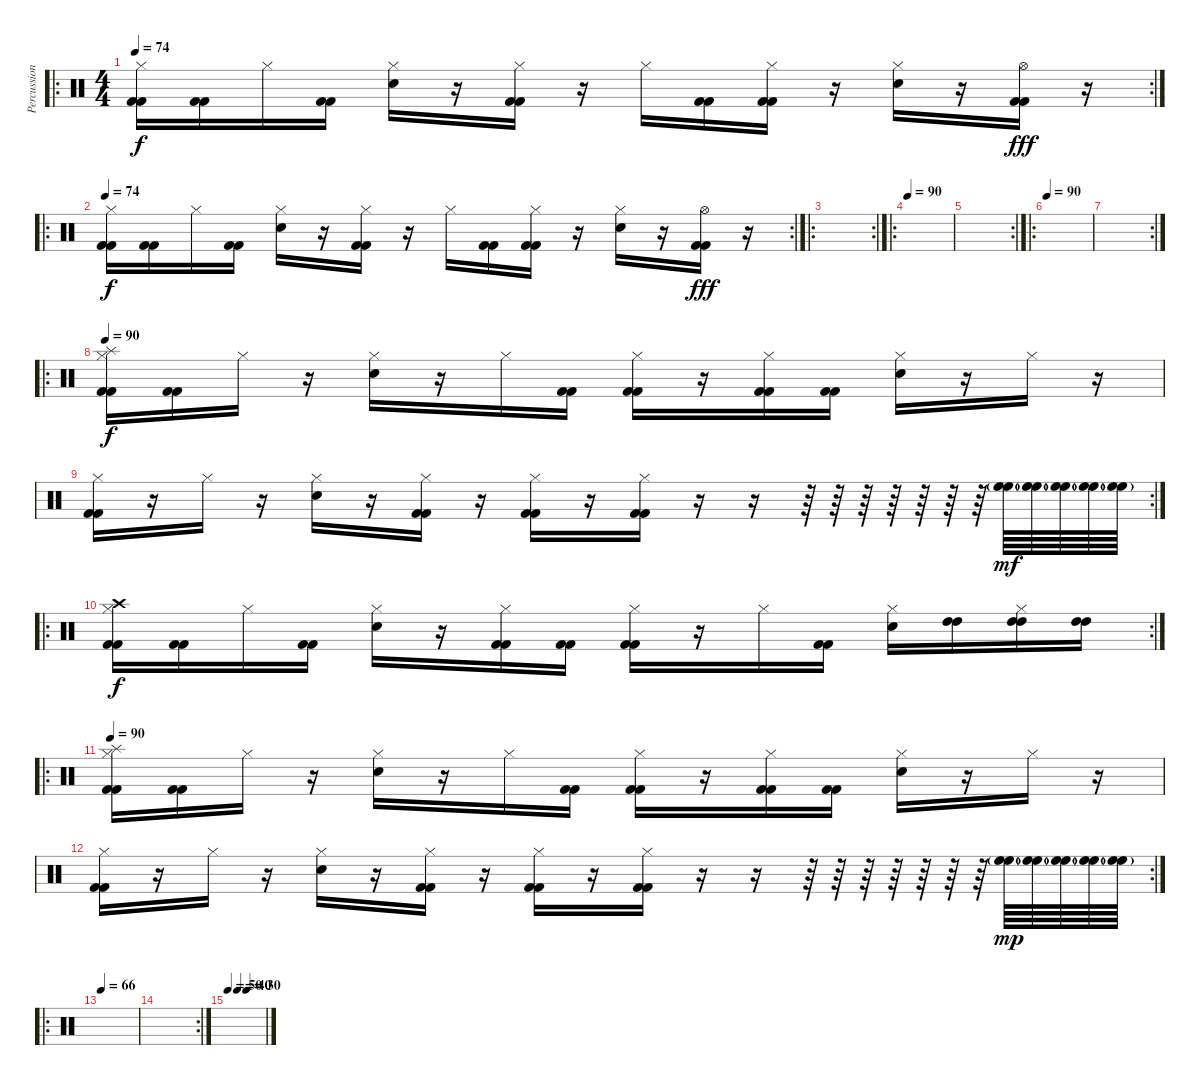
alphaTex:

\track ("Percussion" "Percussion") {instrument percussion}
\staff {score}
\articulation defaults
\ro
\rc 2
\ts (4 4)
\tempo 74
\clef neutral
\ks c
("Hi-Hat (closed)" "Kick (hit) 2" "Kick (hit) 2").16{dy f} ("Kick (hit) 2" "Kick (hit) 2").16 "Hi-Hat (closed)".16 ("Kick (hit) 2" "Kick (hit) 2").16 ("Hi-Hat (closed)" "Snare (hit) 2").16 r.16 ("Hi-Hat (closed)" "Kick (hit) 2" "Kick (hit) 2").16 r.16 "Hi-Hat (closed)".16 ("Kick (hit) 2" "Kick (hit) 2").16 ("Hi-Hat (closed)" "Kick (hit) 2" "Kick (hit) 2").16 r.16 ("Hi-Hat (closed)" "Snare (hit) 2").16 r.16 ("Hi-Hat (open)" "Kick (hit) 2" "Kick (hit) 2").16{dy fff} r.16 |
\ro
\rc 2
\tempo 74
("Hi-Hat (closed)" "Kick (hit) 2" "Kick (hit) 2").16{dy f} ("Kick (hit) 2" "Kick (hit) 2").16 "Hi-Hat (closed)".16 ("Kick (hit) 2" "Kick (hit) 2").16 ("Hi-Hat (closed)" "Snare (hit) 2").16 r.16 ("Hi-Hat (closed)" "Kick (hit) 2" "Kick (hit) 2").16 r.16 "Hi-Hat (closed)".16 ("Kick (hit) 2" "Kick (hit) 2").16 ("Hi-Hat (closed)" "Kick (hit) 2" "Kick (hit) 2").16 r.16 ("Hi-Hat (closed)" "Snare (hit) 2").16 r.16 ("Hi-Hat (open)" "Kick (hit) 2" "Kick (hit) 2").16{dy fff} r.16 |
\ro
\rc 2
|
\ro
\tempo 90
|
\rc 2
|
\ro
\tempo 90
|
\rc 2
|
\ro
\tempo 90
("Hi-Hat (closed)" "Splash (hit)" "Kick (hit) 2" "Kick (hit) 2").16{dy f} ("Kick (hit) 2" "Kick (hit) 2").16 "Hi-Hat (closed)".16 r.16 ("Hi-Hat (closed)" "Snare (hit) 2").16 r.16 "Hi-Hat (closed)".16 ("Kick (hit) 2" "Kick (hit) 2").16 ("Hi-Hat (closed)" "Kick (hit) 2" "Kick (hit) 2").16 r.16 ("Hi-Hat (closed)" "Kick (hit) 2" "Kick (hit) 2").16 ("Kick (hit) 2" "Kick (hit) 2").16 ("Hi-Hat (closed)" "Snare (hit) 2").16 r.16 "Hi-Hat (closed)".16 r.16 |
\rc 2
("Hi-Hat (closed)" "Kick (hit) 2" "Kick (hit) 2").16 r.16 "Hi-Hat (closed)".16 r.16 ("Hi-Hat (closed)" "Snare (hit) 2").16 r.16 ("Hi-Hat (closed)" "Kick (hit) 2" "Kick (hit) 2").16 r.16 ("Hi-Hat (closed)" "Kick (hit) 2" "Kick (hit) 2").16 r.16 ("Hi-Hat (closed)" "Kick (hit) 2" "Kick (hit) 2").16 r.16 r.16 r.64 r.64 r.64 r.64 r.64 r.64 r.64 ("High Floor Tom (hit)" "High Floor Tom (hit)"{g}).64{dy mf} ("High Floor Tom (hit)" "High Floor Tom (hit)"{g}).64 ("High Floor Tom (hit)" "High Floor Tom (hit)"{g}).64 ("High Floor Tom (hit)" "High Floor Tom (hit)"{g}).64 ("High Floor Tom (hit)" "High Floor Tom (hit)"{g}).64 |
\ro
\rc 2
("Hi-Hat (closed)" "Crash high (hit)" "Kick (hit) 2" "Kick (hit) 2").16{dy f} ("Kick (hit) 2" "Kick (hit) 2").16 "Hi-Hat (closed)".16 ("Kick (hit) 2" "Kick (hit) 2").16 ("Hi-Hat (closed)" "Snare (hit) 2").16 r.16 ("Hi-Hat (closed)" "Kick (hit) 2" "Kick (hit) 2").16 ("Kick (hit) 2" "Kick (hit) 2").16 ("Hi-Hat (closed)" "Kick (hit) 2" "Kick (hit) 2").16 r.16 "Hi-Hat (closed)".16 ("Kick (hit) 2" "Kick (hit) 2").16 ("Hi-Hat (closed)" "Snare (hit) 2").16 ("High Tom (hit)" "High Tom (hit)").16 ("Hi-Hat (closed)" "High Tom (hit)" "High Tom (hit)").16 ("High Tom (hit)" "High Tom (hit)").16 |
\ro
\tempo 90
("Hi-Hat (closed)" "Splash (hit)" "Kick (hit) 2" "Kick (hit) 2").16 ("Kick (hit) 2" "Kick (hit) 2").16 "Hi-Hat (closed)".16 r.16 ("Hi-Hat (closed)" "Snare (hit) 2").16 r.16 "Hi-Hat (closed)".16 ("Kick (hit) 2" "Kick (hit) 2").16 ("Hi-Hat (closed)" "Kick (hit) 2" "Kick (hit) 2").16 r.16 ("Hi-Hat (closed)" "Kick (hit) 2" "Kick (hit) 2").16 ("Kick (hit) 2" "Kick (hit) 2").16 ("Hi-Hat (closed)" "Snare (hit) 2").16 r.16 "Hi-Hat (closed)".16 r.16 |
\rc 2
("Hi-Hat (closed)" "Kick (hit) 2" "Kick (hit) 2").16 r.16 "Hi-Hat (closed)".16 r.16 ("Hi-Hat (closed)" "Snare (hit) 2").16 r.16 ("Hi-Hat (closed)" "Kick (hit) 2" "Kick (hit) 2").16 r.16 ("Hi-Hat (closed)" "Kick (hit) 2" "Kick (hit) 2").16 r.16 ("Hi-Hat (closed)" "Kick (hit) 2" "Kick (hit) 2").16 r.16 r.16 r.64 r.64 r.64 r.64 r.64 r.64 r.64 ("High Floor Tom (hit)" "High Floor Tom (hit)"{g}).64{dy mp} ("High Floor Tom (hit)" "High Floor Tom (hit)"{g}).64 ("High Floor Tom (hit)" "High Floor Tom (hit)"{g}).64 ("High Floor Tom (hit)" "High Floor Tom (hit)"{g}).64 ("High Floor Tom (hit)" "High Floor Tom (hit)"{g}).64 |
\ro
\tempo 66
|
\rc 2
|
\tempo 50
\tempo (40 0.25)
\tempo (30 0.5)
